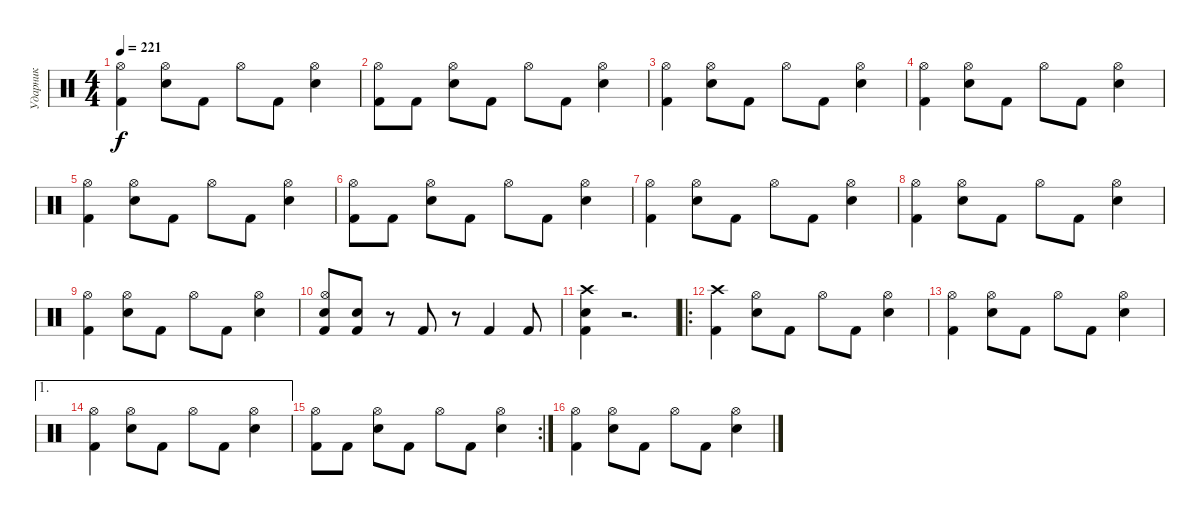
\track ("Ударник" "Ударник") {instrument percussion}
\staff {score}
\articulation defaults
\ts (4 4)
\tempo 221
\clef neutral
\ks c
("Kick (hit) 2" "Hi-Hat (open)").4{dy f} ("Snare (hit) 2" "Hi-Hat (open)").8 "Kick (hit) 2".8 "Hi-Hat (open)".8 "Kick (hit) 2".8 ("Snare (hit) 2" "Hi-Hat (open)").4 |
("Kick (hit) 2" "Hi-Hat (open)").8 "Kick (hit) 2".8 ("Snare (hit) 2" "Hi-Hat (open)").8 "Kick (hit) 2".8 "Hi-Hat (open)".8 "Kick (hit) 2".8 ("Snare (hit) 2" "Hi-Hat (open)").4 |
("Kick (hit) 2" "Hi-Hat (open)").4 ("Snare (hit) 2" "Hi-Hat (open)").8 "Kick (hit) 2".8 "Hi-Hat (open)".8 "Kick (hit) 2".8 ("Snare (hit) 2" "Hi-Hat (open)").4 |
("Kick (hit) 2" "Hi-Hat (open)").4 ("Snare (hit) 2" "Hi-Hat (open)").8 "Kick (hit) 2".8 "Hi-Hat (open)".8 "Kick (hit) 2".8 ("Snare (hit) 2" "Hi-Hat (open)").4 |
("Kick (hit) 2" "Hi-Hat (open)").4 ("Snare (hit) 2" "Hi-Hat (open)").8 "Kick (hit) 2".8 "Hi-Hat (open)".8 "Kick (hit) 2".8 ("Snare (hit) 2" "Hi-Hat (open)").4 |
("Kick (hit) 2" "Hi-Hat (open)").8 "Kick (hit) 2".8 ("Snare (hit) 2" "Hi-Hat (open)").8 "Kick (hit) 2".8 "Hi-Hat (open)".8 "Kick (hit) 2".8 ("Snare (hit) 2" "Hi-Hat (open)").4 |
("Kick (hit) 2" "Hi-Hat (open)").4 ("Snare (hit) 2" "Hi-Hat (open)").8 "Kick (hit) 2".8 "Hi-Hat (open)".8 "Kick (hit) 2".8 ("Snare (hit) 2" "Hi-Hat (open)").4 |
("Kick (hit) 2" "Hi-Hat (open)").4 ("Snare (hit) 2" "Hi-Hat (open)").8 "Kick (hit) 2".8 "Hi-Hat (open)".8 "Kick (hit) 2".8 ("Snare (hit) 2" "Hi-Hat (open)").4 |
("Kick (hit) 2" "Hi-Hat (open)").4 ("Snare (hit) 2" "Hi-Hat (open)").8 "Kick (hit) 2".8 "Hi-Hat (open)".8 "Kick (hit) 2".8 ("Snare (hit) 2" "Hi-Hat (open)").4 |
("Kick (hit) 2" "Snare (hit) 2" "Hi-Hat (open)").8 ("Kick (hit) 2" "Snare (hit) 2").8 r.8 "Kick (hit) 2".8 r.8 "Kick (hit) 2".4 "Kick (hit) 2".8 |
("Kick (hit) 2" "Snare (hit) 2" "Crash high (hit)").4 r.2{d} |
\ro
("Kick (hit) 2" "Crash high (hit)").4 ("Snare (hit) 2" "Hi-Hat (open)").8 "Kick (hit) 2".8 "Hi-Hat (open)".8 "Kick (hit) 2".8 ("Snare (hit) 2" "Hi-Hat (open)").4 |
("Kick (hit) 2" "Hi-Hat (open)").4 ("Snare (hit) 2" "Hi-Hat (open)").8 "Kick (hit) 2".8 "Hi-Hat (open)".8 "Kick (hit) 2".8 ("Snare (hit) 2" "Hi-Hat (open)").4 |
\ae 1
("Kick (hit) 2" "Hi-Hat (open)").4 ("Snare (hit) 2" "Hi-Hat (open)").8 "Kick (hit) 2".8 "Hi-Hat (open)".8 "Kick (hit) 2".8 ("Snare (hit) 2" "Hi-Hat (open)").4 |
\rc 2
("Kick (hit) 2" "Hi-Hat (open)").8 "Kick (hit) 2".8 ("Snare (hit) 2" "Hi-Hat (open)").8 "Kick (hit) 2".8 "Hi-Hat (open)".8 "Kick (hit) 2".8 ("Snare (hit) 2" "Hi-Hat (open)").4 |
("Kick (hit) 2" "Hi-Hat (open)").4 ("Snare (hit) 2" "Hi-Hat (open)").8 "Kick (hit) 2".8 "Hi-Hat (open)".8 "Kick (hit) 2".8 ("Snare (hit) 2" "Hi-Hat (open)").4
